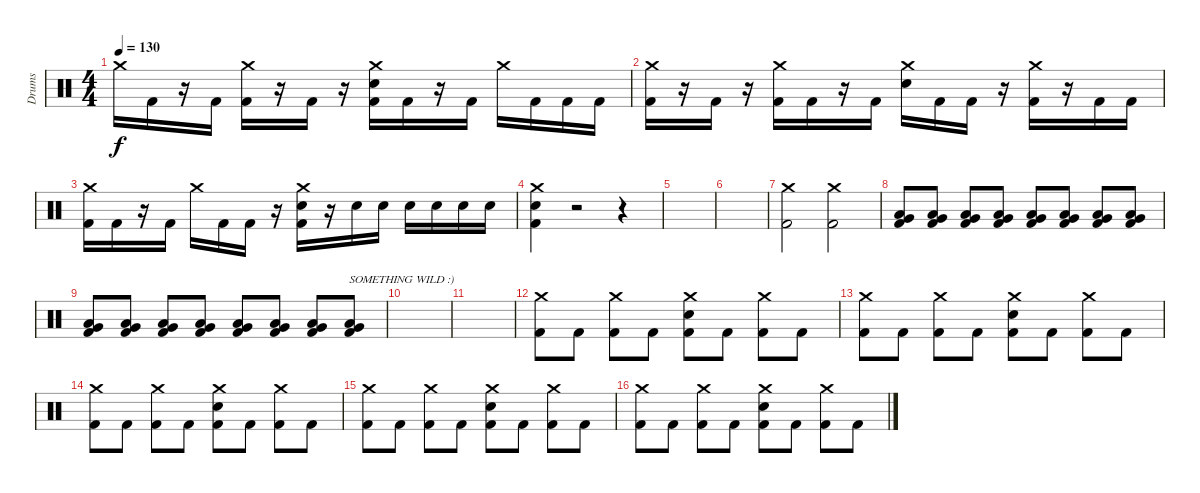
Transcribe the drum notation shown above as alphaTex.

\track ("Drums" "Drums") {instrument percussion}
\staff {score}
\articulation defaults
\ts (4 4)
\tempo 130
\clef neutral
\ks c "Crash medium (hit)".16{dy f} "Kick (hit) 2".16
r.16 "Kick (hit) 2".16 ("Crash medium (hit)" "Kick (hit) 2").16 r.16 "Kick (hit) 2".16 r.16 ("Crash medium (hit)" "Electric Snare (hit)" "Kick (hit) 2").16 "Kick (hit) 2".16 r.16 "Kick (hit) 2".16 "Crash medium (hit)".16 "Kick (hit) 2".16 "Kick (hit) 2".16 "Kick (hit) 2".16 |
("Crash medium (hit)" "Kick (hit) 2").16 r.16 "Kick (hit) 2".16 r.16 ("Crash medium (hit)" "Kick (hit) 2").16 "Kick (hit) 2".16 r.16 "Kick (hit) 2".16 ("Crash medium (hit)" "Electric Snare (hit)").16 "Kick (hit) 2".16 "Kick (hit) 2".16 r.16 ("Crash medium (hit)" "Kick (hit) 2").16 r.16 "Kick (hit) 2".16 "Kick (hit) 2".16 |
("Crash medium (hit)" "Kick (hit) 2").16 "Kick (hit) 2".16 r.16 "Kick (hit) 2".16 "Crash medium (hit)".16 "Kick (hit) 2".16 "Kick (hit) 2".16 r.16 ("Crash medium (hit)" "Electric Snare (hit)" "Kick (hit) 2").16 r.16 "Electric Snare (hit)".16 "Electric Snare (hit)".16 "Electric Snare (hit)".16 "Electric Snare (hit)".16 "Electric Snare (hit)".16 "Electric Snare (hit)".16 |
("Crash medium (hit)" "Electric Snare (hit)" "Kick (hit) 2").4 r.2 r.4 |
|
|
("Crash medium (hit)" "Kick (hit) 2").2 ("Crash medium (hit)" "Kick (hit) 2").2 |
("Very Low Tom (hit)" "Low Tom (hit)" "Kick (hit) 2").8 ("Very Low Tom (hit)" "Low Tom (hit)" "Kick (hit) 2").8 ("Very Low Tom (hit)" "Low Tom (hit)" "Kick (hit) 2").8 ("Very Low Tom (hit)" "Low Tom (hit)" "Kick (hit) 2").8 ("Very Low Tom (hit)" "Low Tom (hit)" "Kick (hit) 2").8 ("Very Low Tom (hit)" "Low Tom (hit)" "Kick (hit) 2").8 ("Very Low Tom (hit)" "Low Tom (hit)" "Kick (hit) 2").8 ("Very Low Tom (hit)" "Low Tom (hit)" "Kick (hit) 2").8 |
("Very Low Tom (hit)" "Low Tom (hit)" "Kick (hit) 2").8 ("Very Low Tom (hit)" "Low Tom (hit)" "Kick (hit) 2").8 ("Very Low Tom (hit)" "Low Tom (hit)" "Kick (hit) 2").8 ("Very Low Tom (hit)" "Low Tom (hit)" "Kick (hit) 2").8 ("Very Low Tom (hit)" "Low Tom (hit)" "Kick (hit) 2").8 ("Very Low Tom (hit)" "Low Tom (hit)" "Kick (hit) 2").8 ("Very Low Tom (hit)" "Low Tom (hit)" "Kick (hit) 2").8 ("Very Low Tom (hit)" "Low Tom (hit)" "Kick (hit) 2").8{txt "SOMETHING WILD :)"} |
|
|
("Crash medium (hit)" "Kick (hit) 2").8 "Kick (hit) 2".8 ("Crash medium (hit)" "Kick (hit) 2").8 "Kick (hit) 2".8 ("Crash medium (hit)" "Electric Snare (hit)" "Kick (hit) 2").8 "Kick (hit) 2".8 ("Crash medium (hit)" "Kick (hit) 2").8 "Kick (hit) 2".8 |
("Crash medium (hit)" "Kick (hit) 2").8 "Kick (hit) 2".8 ("Crash medium (hit)" "Kick (hit) 2").8 "Kick (hit) 2".8 ("Crash medium (hit)" "Electric Snare (hit)" "Kick (hit) 2").8 "Kick (hit) 2".8 ("Crash medium (hit)" "Kick (hit) 2").8 "Kick (hit) 2".8 |
("Crash medium (hit)" "Kick (hit) 2").8 "Kick (hit) 2".8 ("Crash medium (hit)" "Kick (hit) 2").8 "Kick (hit) 2".8 ("Crash medium (hit)" "Electric Snare (hit)" "Kick (hit) 2").8 "Kick (hit) 2".8 ("Crash medium (hit)" "Kick (hit) 2").8 "Kick (hit) 2".8 |
("Crash medium (hit)" "Kick (hit) 2").8 "Kick (hit) 2".8 ("Crash medium (hit)" "Kick (hit) 2").8 "Kick (hit) 2".8 ("Crash medium (hit)" "Electric Snare (hit)" "Kick (hit) 2").8 "Kick (hit) 2".8 ("Crash medium (hit)" "Kick (hit) 2").8 "Kick (hit) 2".8 |
("Crash medium (hit)" "Kick (hit) 2").8 "Kick (hit) 2".8 ("Crash medium (hit)" "Kick (hit) 2").8 "Kick (hit) 2".8 ("Crash medium (hit)" "Electric Snare (hit)" "Kick (hit) 2").8 "Kick (hit) 2".8 ("Crash medium (hit)" "Kick (hit) 2").8 "Kick (hit) 2".8
